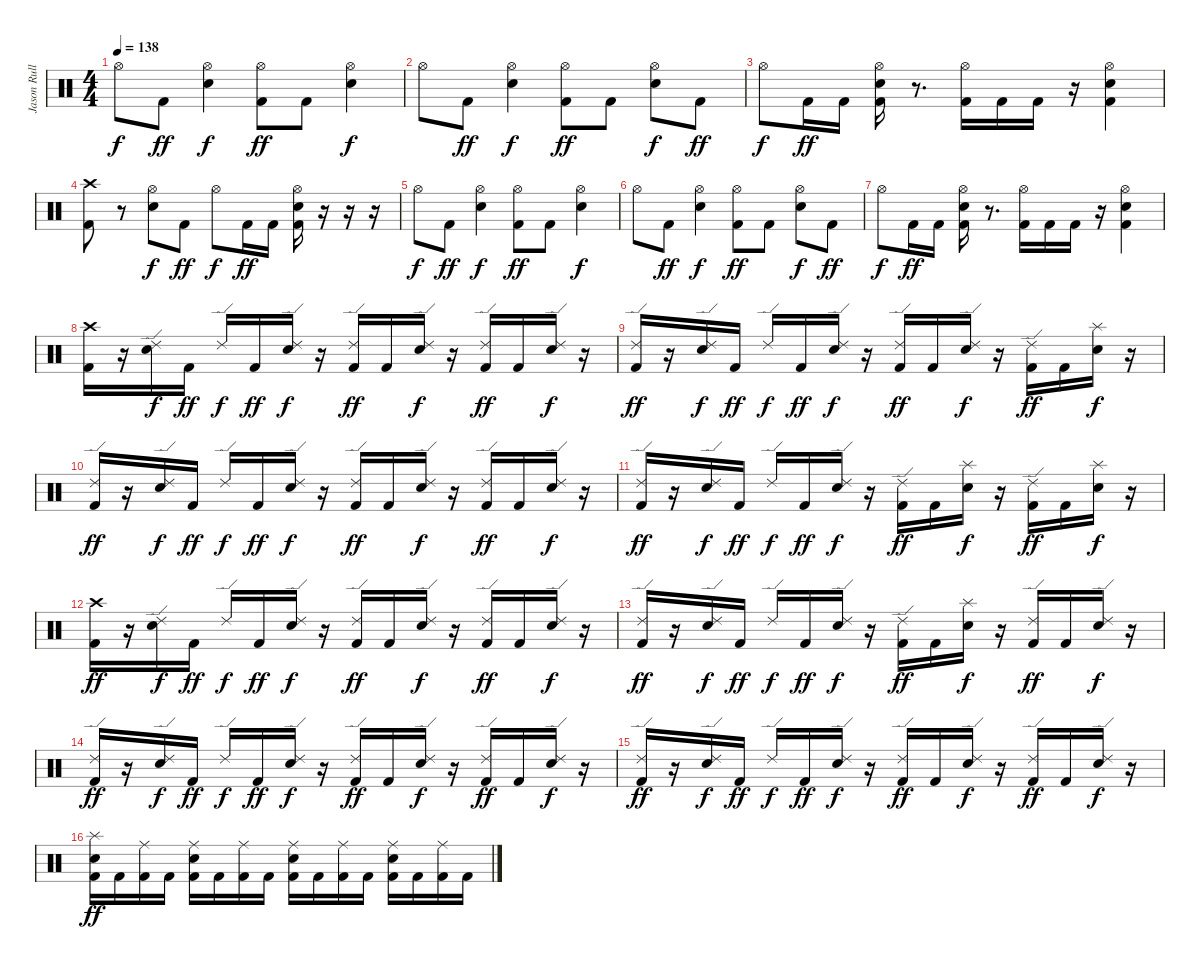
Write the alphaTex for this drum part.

\track ("Jason Rullo" "Jason Rull") {instrument percussion}
\staff {score}
\articulation defaults
\ts (4 4)
\tempo 138
\clef neutral
\ks c "Hi-Hat (open)".8{dy f} "Kick (hit) 2".8{dy ff}
("Electric Snare (hit)" "Hi-Hat (open)").4{dy f} ("Kick (hit) 2" "Hi-Hat (open)").8{dy ff} "Kick (hit) 2".8 ("Electric Snare (hit)" "Hi-Hat (open)").4{dy f} |
"Hi-Hat (open)".8 "Kick (hit) 2".8{dy ff} ("Electric Snare (hit)" "Hi-Hat (open)").4{dy f} ("Kick (hit) 2" "Hi-Hat (open)").8{dy ff} "Kick (hit) 2".8 ("Electric Snare (hit)" "Hi-Hat (open)").8{dy f} "Kick (hit) 2".8{dy ff} |
"Hi-Hat (open)".8{dy f} "Kick (hit) 2".16{dy ff} "Kick (hit) 2".16 ("Kick (hit) 2" "Electric Snare (hit)" "Hi-Hat (open)").16 r.8{d} ("Kick (hit) 2" "Hi-Hat (open)").16 "Kick (hit) 2".16 "Kick (hit) 2".16 r.16 ("Kick (hit) 2" "Electric Snare (hit)" "Hi-Hat (open)").4 |
("Kick (hit) 2" "Crash high (hit)").8 r.8 ("Electric Snare (hit)" "Hi-Hat (open)").8{dy f} "Kick (hit) 2".8{dy ff} "Hi-Hat (open)".8{dy f} "Kick (hit) 2".16{dy ff} "Kick (hit) 2".16 ("Kick (hit) 2" "Electric Snare (hit)" "Hi-Hat (open)").16 r.16 r.16 r.16 |
"Hi-Hat (open)".8{dy f} "Kick (hit) 2".8{dy ff} ("Electric Snare (hit)" "Hi-Hat (open)").4{dy f} ("Kick (hit) 2" "Hi-Hat (open)").8{dy ff} "Kick (hit) 2".8 ("Electric Snare (hit)" "Hi-Hat (open)").4{dy f} |
"Hi-Hat (open)".8 "Kick (hit) 2".8{dy ff} ("Electric Snare (hit)" "Hi-Hat (open)").4{dy f} ("Kick (hit) 2" "Hi-Hat (open)").8{dy ff} "Kick (hit) 2".8 ("Electric Snare (hit)" "Hi-Hat (open)").8{dy f} "Kick (hit) 2".8{dy ff} |
"Hi-Hat (open)".8{dy f} "Kick (hit) 2".16{dy ff} "Kick (hit) 2".16 ("Kick (hit) 2" "Electric Snare (hit)" "Hi-Hat (open)").16 r.8{d} ("Kick (hit) 2" "Hi-Hat (open)").16 "Kick (hit) 2".16 "Kick (hit) 2".16 r.16 ("Kick (hit) 2" "Electric Snare (hit)" "Hi-Hat (open)").4 |
("Kick (hit) 2" "Crash high (hit)").16 r.16 ("Electric Snare (hit)" "Ride (edge) 2").16{dy f} "Kick (hit) 2".16{dy ff} "Ride (edge) 2".16{dy f} "Kick (hit) 2".16{dy ff} ("Electric Snare (hit)" "Ride (edge) 2").16{dy f} r.16 ("Kick (hit) 2" "Ride (edge) 2").16{dy ff} "Kick (hit) 2".16 ("Electric Snare (hit)" "Ride (edge) 2").16{dy f} r.16 ("Kick (hit) 2" "Ride (edge) 2").16{dy ff} "Kick (hit) 2".16 ("Electric Snare (hit)" "Ride (edge) 2").16{dy f} r.16 |
("Kick (hit) 2" "Ride (edge) 2").16{dy ff} r.16 ("Electric Snare (hit)" "Ride (edge) 2").16{dy f} "Kick (hit) 2".16{dy ff} "Ride (edge) 2".16{dy f} "Kick (hit) 2".16{dy ff} ("Electric Snare (hit)" "Ride (edge) 2").16{dy f} r.16 ("Kick (hit) 2" "Ride (edge) 2").16{dy ff} "Kick (hit) 2".16 ("Electric Snare (hit)" "Ride (edge) 2").16{dy f} r.16 ("Kick (hit) 2" "Ride (edge) 2").16{dy ff} "Kick (hit) 2".16 ("Electric Snare (hit)" "Splash (hit)").16{dy f} r.16 |
("Kick (hit) 2" "Ride (edge) 2").16{dy ff} r.16 ("Electric Snare (hit)" "Ride (edge) 2").16{dy f} "Kick (hit) 2".16{dy ff} "Ride (edge) 2".16{dy f} "Kick (hit) 2".16{dy ff} ("Electric Snare (hit)" "Ride (edge) 2").16{dy f} r.16 ("Kick (hit) 2" "Ride (edge) 2").16{dy ff} "Kick (hit) 2".16 ("Electric Snare (hit)" "Ride (edge) 2").16{dy f} r.16 ("Kick (hit) 2" "Ride (edge) 2").16{dy ff} "Kick (hit) 2".16 ("Electric Snare (hit)" "Ride (edge) 2").16{dy f} r.16 |
("Kick (hit) 2" "Ride (edge) 2").16{dy ff} r.16 ("Electric Snare (hit)" "Ride (edge) 2").16{dy f} "Kick (hit) 2".16{dy ff} "Ride (edge) 2".16{dy f} "Kick (hit) 2".16{dy ff} ("Electric Snare (hit)" "Ride (edge) 2").16{dy f} r.16 ("Kick (hit) 2" "Ride (edge) 2").16{dy ff} "Kick (hit) 2".16 ("Electric Snare (hit)" "Splash (hit)").16{dy f} r.16 ("Kick (hit) 2" "Ride (edge) 2").16{dy ff} "Kick (hit) 2".16 ("Electric Snare (hit)" "Splash (hit)").16{dy f} r.16 |
("Kick (hit) 2" "Crash high (hit)").16{dy ff} r.16 ("Electric Snare (hit)" "Ride (edge) 2").16{dy f} "Kick (hit) 2".16{dy ff} "Ride (edge) 2".16{dy f} "Kick (hit) 2".16{dy ff} ("Electric Snare (hit)" "Ride (edge) 2").16{dy f} r.16 ("Kick (hit) 2" "Ride (edge) 2").16{dy ff} "Kick (hit) 2".16 ("Electric Snare (hit)" "Ride (edge) 2").16{dy f} r.16 ("Kick (hit) 2" "Ride (edge) 2").16{dy ff} "Kick (hit) 2".16 ("Electric Snare (hit)" "Ride (edge) 2").16{dy f} r.16 |
("Kick (hit) 2" "Ride (edge) 2").16{dy ff} r.16 ("Electric Snare (hit)" "Ride (edge) 2").16{dy f} "Kick (hit) 2".16{dy ff} "Ride (edge) 2".16{dy f} "Kick (hit) 2".16{dy ff} ("Electric Snare (hit)" "Ride (edge) 2").16{dy f} r.16 ("Kick (hit) 2" "Ride (edge) 2").16{dy ff} "Kick (hit) 2".16 ("Electric Snare (hit)" "Splash (hit)").16{dy f} r.16 ("Kick (hit) 2" "Ride (edge) 2").16{dy ff} "Kick (hit) 2".16 ("Electric Snare (hit)" "Ride (edge) 2").16{dy f} r.16 |
("Kick (hit) 2" "Ride (edge) 2").16{dy ff} r.16 ("Electric Snare (hit)" "Ride (edge) 2").16{dy f} "Kick (hit) 2".16{dy ff} "Ride (edge) 2".16{dy f} "Kick (hit) 2".16{dy ff} ("Electric Snare (hit)" "Ride (edge) 2").16{dy f} r.16 ("Kick (hit) 2" "Ride (edge) 2").16{dy ff} "Kick (hit) 2".16 ("Electric Snare (hit)" "Ride (edge) 2").16{dy f} r.16 ("Kick (hit) 2" "Ride (edge) 2").16{dy ff} "Kick (hit) 2".16 ("Electric Snare (hit)" "Ride (edge) 2").16{dy f} r.16 |
("Kick (hit) 2" "Ride (edge) 2").16{dy ff} r.16 ("Electric Snare (hit)" "Ride (edge) 2").16{dy f} "Kick (hit) 2".16{dy ff} "Ride (edge) 2".16{dy f} "Kick (hit) 2".16{dy ff} ("Electric Snare (hit)" "Ride (edge) 2").16{dy f} r.16 ("Kick (hit) 2" "Ride (edge) 2").16{dy ff} "Kick (hit) 2".16 ("Electric Snare (hit)" "Ride (edge) 2").16{dy f} r.16 ("Kick (hit) 2" "Ride (edge) 2").16{dy ff} "Kick (hit) 2".16 ("Electric Snare (hit)" "Ride (edge) 2").16{dy f} r.16 |
("Kick (hit) 2" "Electric Snare (hit)" "Splash (hit)").16{dy ff} "Kick (hit) 2".16 ("Kick (hit) 2" "Ride (middle)").16 "Kick (hit) 2".16 ("Kick (hit) 2" "Electric Snare (hit)" "Ride (middle)").16 "Kick (hit) 2".16 ("Kick (hit) 2" "Ride (middle)").16 "Kick (hit) 2".16 ("Kick (hit) 2" "Electric Snare (hit)" "Ride (middle)").16 "Kick (hit) 2".16 ("Kick (hit) 2" "Ride (middle)").16 "Kick (hit) 2".16 ("Kick (hit) 2" "Electric Snare (hit)" "Ride (middle)").16 "Kick (hit) 2".16 ("Kick (hit) 2" "Ride (middle)").16 "Kick (hit) 2".16
